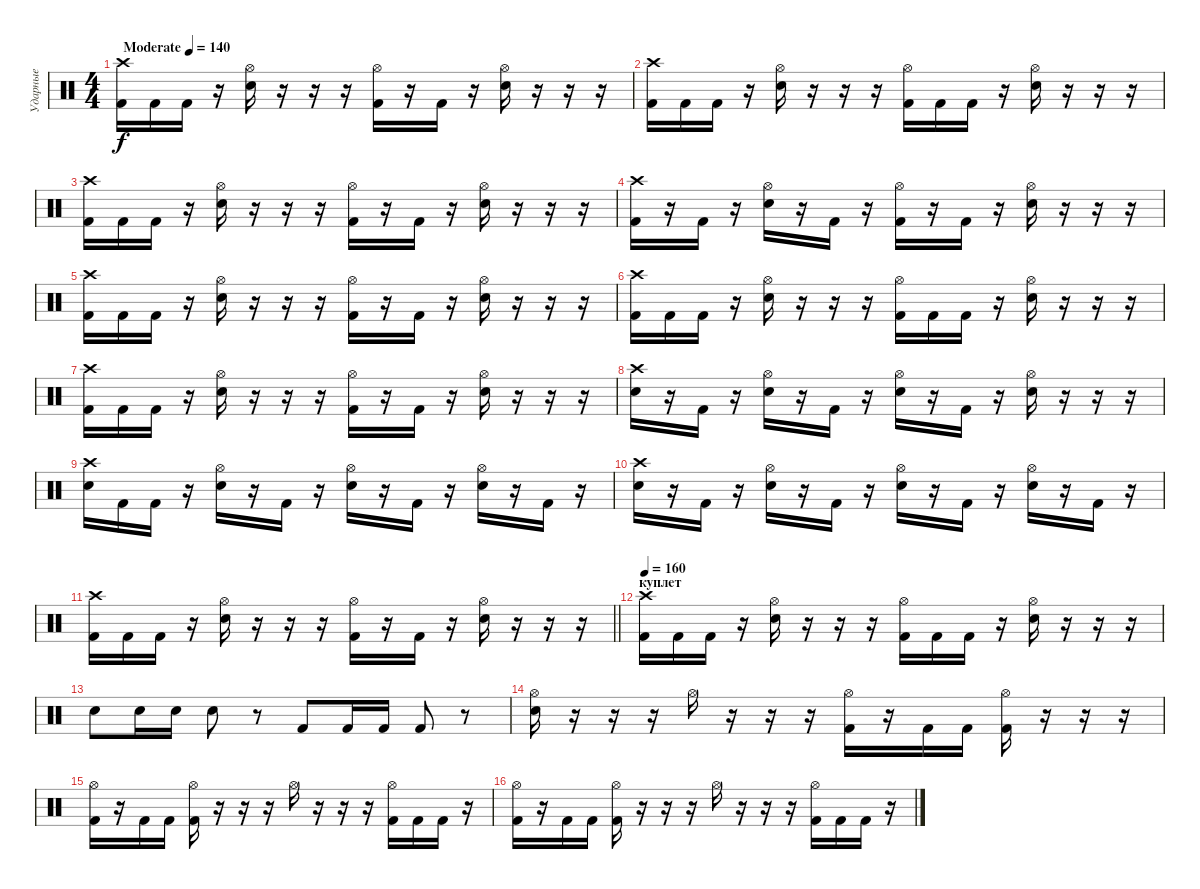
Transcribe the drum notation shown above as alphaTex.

\track ("Ударные" "Ударные") {instrument percussion}
\staff {score}
\articulation defaults
\ts (4 4)
\tempo (140 "Moderate")
\clef neutral
\ks c
("Crash high (hit)" "Kick (hit) 2").16{dy f} "Kick (hit) 2".16 "Kick (hit) 2".16 r.16 ("Hi-Hat (open)" "Electric Snare (hit)").16 r.16 r.16 r.16 ("Hi-Hat (open)" "Kick (hit) 2").16 r.16 "Kick (hit) 2".16 r.16 ("Hi-Hat (open)" "Electric Snare (hit)").16 r.16 r.16 r.16 |
("Crash high (hit)" "Kick (hit) 2").16 "Kick (hit) 2".16 "Kick (hit) 2".16 r.16 ("Hi-Hat (open)" "Electric Snare (hit)").16 r.16 r.16 r.16 ("Hi-Hat (open)" "Kick (hit) 2").16 "Kick (hit) 2".16 "Kick (hit) 2".16 r.16 ("Hi-Hat (open)" "Electric Snare (hit)").16 r.16 r.16 r.16 |
("Crash high (hit)" "Kick (hit) 2").16 "Kick (hit) 2".16 "Kick (hit) 2".16 r.16 ("Hi-Hat (open)" "Electric Snare (hit)").16 r.16 r.16 r.16 ("Hi-Hat (open)" "Kick (hit) 2").16 r.16 "Kick (hit) 2".16 r.16 ("Hi-Hat (open)" "Electric Snare (hit)").16 r.16 r.16 r.16 |
("Crash high (hit)" "Kick (hit) 2").16 r.16 "Kick (hit) 2".16 r.16 ("Hi-Hat (open)" "Electric Snare (hit)").16 r.16 "Kick (hit) 2".16 r.16 ("Hi-Hat (open)" "Kick (hit) 2").16 r.16 "Kick (hit) 2".16 r.16 ("Hi-Hat (open)" "Electric Snare (hit)").16 r.16 r.16 r.16 |
("Crash high (hit)" "Kick (hit) 2").16 "Kick (hit) 2".16 "Kick (hit) 2".16 r.16 ("Hi-Hat (open)" "Electric Snare (hit)").16 r.16 r.16 r.16 ("Hi-Hat (open)" "Kick (hit) 2").16 r.16 "Kick (hit) 2".16 r.16 ("Hi-Hat (open)" "Electric Snare (hit)").16 r.16 r.16 r.16 |
("Crash high (hit)" "Kick (hit) 2").16 "Kick (hit) 2".16 "Kick (hit) 2".16 r.16 ("Hi-Hat (open)" "Electric Snare (hit)").16 r.16 r.16 r.16 ("Hi-Hat (open)" "Kick (hit) 2").16 "Kick (hit) 2".16 "Kick (hit) 2".16 r.16 ("Hi-Hat (open)" "Electric Snare (hit)").16 r.16 r.16 r.16 |
("Crash high (hit)" "Kick (hit) 2").16 "Kick (hit) 2".16 "Kick (hit) 2".16 r.16 ("Hi-Hat (open)" "Electric Snare (hit)").16 r.16 r.16 r.16 ("Hi-Hat (open)" "Kick (hit) 2").16 r.16 "Kick (hit) 2".16 r.16 ("Hi-Hat (open)" "Electric Snare (hit)").16 r.16 r.16 r.16 |
("Crash high (hit)" "Electric Snare (hit)").16 r.16 "Kick (hit) 2".16 r.16 ("Hi-Hat (open)" "Electric Snare (hit)").16 r.16 "Kick (hit) 2".16 r.16 ("Hi-Hat (open)" "Electric Snare (hit)").16 r.16 "Kick (hit) 2".16 r.16 ("Hi-Hat (open)" "Electric Snare (hit)").16 r.16 r.16 r.16 |
("Crash high (hit)" "Electric Snare (hit)").16 "Kick (hit) 2".16 "Kick (hit) 2".16 r.16 ("Hi-Hat (open)" "Electric Snare (hit)").16 r.16 "Kick (hit) 2".16 r.16 ("Hi-Hat (open)" "Electric Snare (hit)").16 r.16 "Kick (hit) 2".16 r.16 ("Hi-Hat (open)" "Electric Snare (hit)").16 r.16 "Kick (hit) 2".16 r.16 |
("Crash high (hit)" "Electric Snare (hit)").16 r.16 "Kick (hit) 2".16 r.16 ("Hi-Hat (open)" "Electric Snare (hit)").16 r.16 "Kick (hit) 2".16 r.16 ("Hi-Hat (open)" "Electric Snare (hit)").16 r.16 "Kick (hit) 2".16 r.16 ("Hi-Hat (open)" "Electric Snare (hit)").16 r.16 "Kick (hit) 2".16 r.16 |
\barLineRight lightlight
("Crash high (hit)" "Kick (hit) 2").16 "Kick (hit) 2".16 "Kick (hit) 2".16 r.16 ("Hi-Hat (open)" "Electric Snare (hit)").16 r.16 r.16 r.16 ("Hi-Hat (open)" "Kick (hit) 2").16 r.16 "Kick (hit) 2".16 r.16 ("Hi-Hat (open)" "Electric Snare (hit)").16 r.16 r.16 r.16 |
\section ("" "куплет")
\tempo 160
("Crash high (hit)" "Kick (hit) 2").16 "Kick (hit) 2".16 "Kick (hit) 2".16 r.16 ("Hi-Hat (open)" "Electric Snare (hit)").16 r.16 r.16 r.16 ("Hi-Hat (open)" "Kick (hit) 2").16 "Kick (hit) 2".16 "Kick (hit) 2".16 r.16 ("Hi-Hat (open)" "Electric Snare (hit)").16 r.16 r.16 r.16 |
"Electric Snare (hit)".8 "Electric Snare (hit)".16 "Electric Snare (hit)".16 "Electric Snare (hit)".8 r.8 "Kick (hit) 2".8 "Kick (hit) 2".16 "Kick (hit) 2".16 "Kick (hit) 2".8 r.8 |
("Hi-Hat (open)" "Electric Snare (hit)").16 r.16 r.16 r.16 "Hi-Hat (open)".16 r.16 r.16 r.16 ("Hi-Hat (open)" "Kick (hit) 2").16 r.16 "Kick (hit) 2".16 "Kick (hit) 2".16 ("Hi-Hat (open)" "Kick (hit) 2").16 r.16 r.16 r.16 |
("Hi-Hat (open)" "Kick (hit) 2").16 r.16 "Kick (hit) 2".16 "Kick (hit) 2".16 ("Hi-Hat (open)" "Kick (hit) 2").16 r.16 r.16 r.16 "Hi-Hat (open)".16 r.16 r.16 r.16 ("Hi-Hat (open)" "Kick (hit) 2").16 "Kick (hit) 2".16 "Kick (hit) 2".16 r.16 |
("Hi-Hat (open)" "Kick (hit) 2").16 r.16 "Kick (hit) 2".16 "Kick (hit) 2".16 ("Hi-Hat (open)" "Kick (hit) 2").16 r.16 r.16 r.16 "Hi-Hat (open)".16 r.16 r.16 r.16 ("Hi-Hat (open)" "Kick (hit) 2").16 "Kick (hit) 2".16 "Kick (hit) 2".16 r.16
